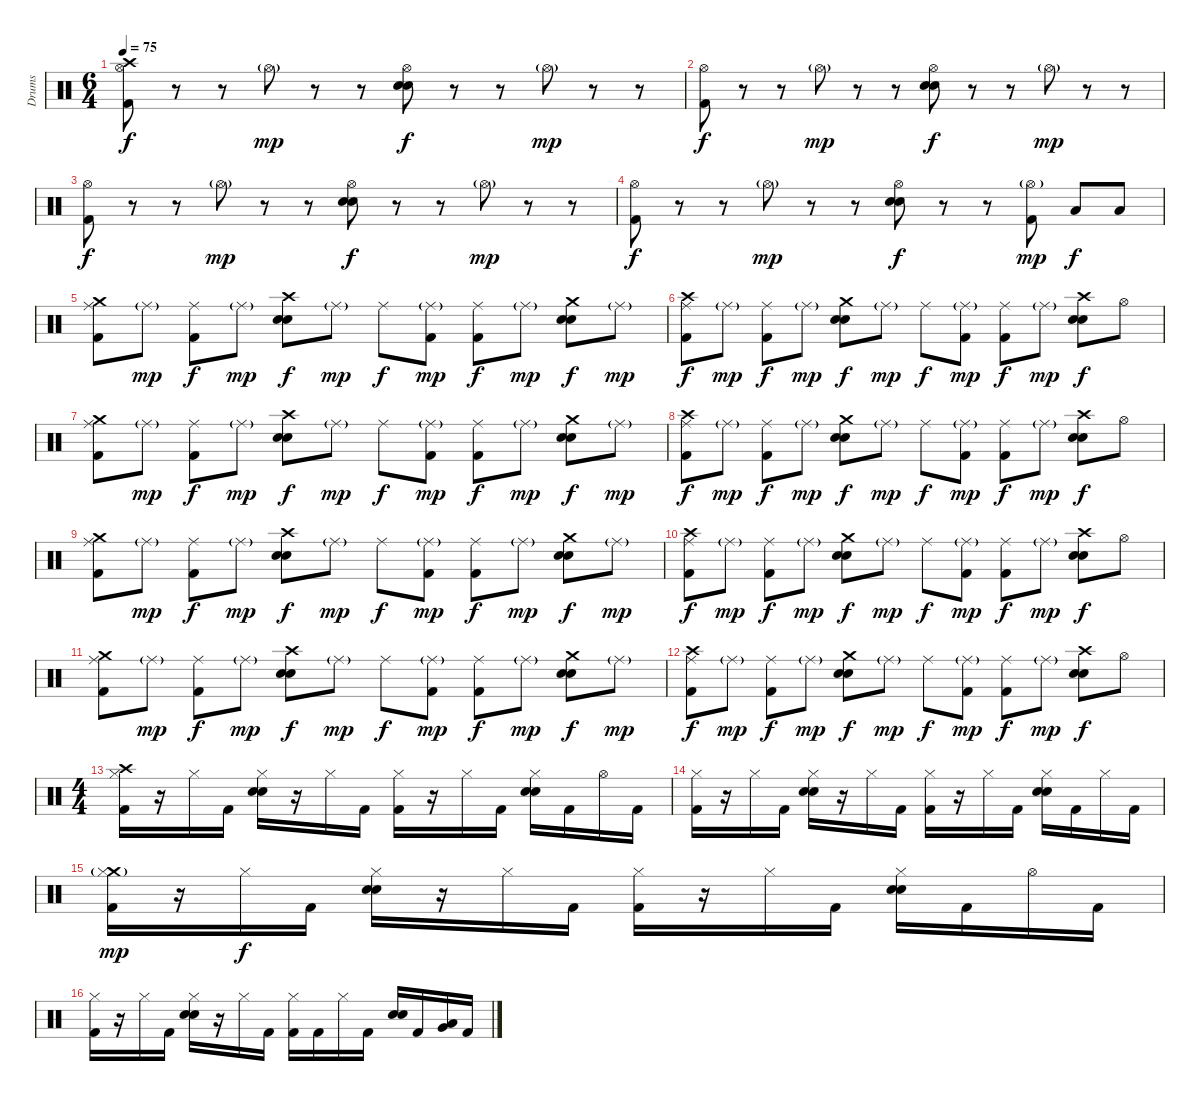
\track ("Drums" "Drums") {instrument percussion}
\staff {score}
\articulation defaults
\ts (6 4)
\tempo 75
\clef neutral
\ks c
("Hi-Hat (open)" "Crash high (hit)" "Kick (hit) 2").8{dy f} r.8 r.8 "Hi-Hat (open)"{g}.8{dy mp} r.8 r.8 ("Hi-Hat (open)" "Electric Snare (hit)" "Snare (hit) 2").8{dy f} r.8 r.8 "Hi-Hat (open)"{g}.8{dy mp} r.8 r.8 |
("Hi-Hat (open)" "Kick (hit) 2").8{dy f} r.8 r.8 "Hi-Hat (open)"{g}.8{dy mp} r.8 r.8 ("Hi-Hat (open)" "Electric Snare (hit)" "Snare (hit) 2").8{dy f} r.8 r.8 "Hi-Hat (open)"{g}.8{dy mp} r.8 r.8 |
("Hi-Hat (open)" "Kick (hit) 2").8{dy f} r.8 r.8 "Hi-Hat (open)"{g}.8{dy mp} r.8 r.8 ("Hi-Hat (open)" "Electric Snare (hit)" "Snare (hit) 2").8{dy f} r.8 r.8 "Hi-Hat (open)"{g}.8{dy mp} r.8 r.8 |
("Hi-Hat (open)" "Kick (hit) 2").8{dy f} r.8 r.8 "Hi-Hat (open)"{g}.8{dy mp} r.8 r.8 ("Hi-Hat (open)" "Electric Snare (hit)" "Snare (hit) 2").8{dy f} r.8 r.8 ("Hi-Hat (open)"{g} "Kick (hit) 2").8{dy mp} "Low Floor Tom (hit)".8{dy f} "Low Floor Tom (hit)".8 |
("Ride (middle)" "Crash medium (hit)" "Kick (hit) 2").8 "Ride (middle)"{g}.8{dy mp} ("Ride (middle)" "Kick (hit) 2").8{dy f} "Ride (middle)"{g}.8{dy mp} ("Crash high (hit)" "Electric Snare (hit)" "Snare (hit) 2").8{dy f} "Ride (middle)"{g}.8{dy mp} "Ride (middle)".8{dy f} ("Ride (middle)"{g} "Kick (hit) 2").8{dy mp} ("Ride (middle)" "Kick (hit) 2").8{dy f} "Ride (middle)"{g}.8{dy mp} ("Crash medium (hit)" "Electric Snare (hit)" "Snare (hit) 2").8{dy f} "Ride (middle)"{g}.8{dy mp} |
("Ride (middle)" "Crash high (hit)" "Kick (hit) 2").8{dy f} "Ride (middle)"{g}.8{dy mp} ("Ride (middle)" "Kick (hit) 2").8{dy f} "Ride (middle)"{g}.8{dy mp} ("Crash medium (hit)" "Electric Snare (hit)" "Snare (hit) 2").8{dy f} "Ride (middle)"{g}.8{dy mp} "Ride (middle)".8{dy f} ("Ride (middle)"{g} "Kick (hit) 2").8{dy mp} ("Ride (middle)" "Kick (hit) 2").8{dy f} "Ride (middle)"{g}.8{dy mp} ("Crash high (hit)" "Electric Snare (hit)" "Snare (hit) 2").8{dy f} "Hi-Hat (open)".8 |
("Ride (middle)" "Crash medium (hit)" "Kick (hit) 2").8 "Ride (middle)"{g}.8{dy mp} ("Ride (middle)" "Kick (hit) 2").8{dy f} "Ride (middle)"{g}.8{dy mp} ("Crash high (hit)" "Electric Snare (hit)" "Snare (hit) 2").8{dy f} "Ride (middle)"{g}.8{dy mp} "Ride (middle)".8{dy f} ("Ride (middle)"{g} "Kick (hit) 2").8{dy mp} ("Ride (middle)" "Kick (hit) 2").8{dy f} "Ride (middle)"{g}.8{dy mp} ("Crash medium (hit)" "Electric Snare (hit)" "Snare (hit) 2").8{dy f} "Ride (middle)"{g}.8{dy mp} |
("Ride (middle)" "Crash high (hit)" "Kick (hit) 2").8{dy f} "Ride (middle)"{g}.8{dy mp} ("Ride (middle)" "Kick (hit) 2").8{dy f} "Ride (middle)"{g}.8{dy mp} ("Crash medium (hit)" "Electric Snare (hit)" "Snare (hit) 2").8{dy f} "Ride (middle)"{g}.8{dy mp} "Ride (middle)".8{dy f} ("Ride (middle)"{g} "Kick (hit) 2").8{dy mp} ("Ride (middle)" "Kick (hit) 2").8{dy f} "Ride (middle)"{g}.8{dy mp} ("Crash high (hit)" "Electric Snare (hit)" "Snare (hit) 2").8{dy f} "Hi-Hat (open)".8 |
("Ride (middle)" "Crash medium (hit)" "Kick (hit) 2").8 "Ride (middle)"{g}.8{dy mp} ("Ride (middle)" "Kick (hit) 2").8{dy f} "Ride (middle)"{g}.8{dy mp} ("Crash high (hit)" "Electric Snare (hit)" "Snare (hit) 2").8{dy f} "Ride (middle)"{g}.8{dy mp} "Ride (middle)".8{dy f} ("Ride (middle)"{g} "Kick (hit) 2").8{dy mp} ("Ride (middle)" "Kick (hit) 2").8{dy f} "Ride (middle)"{g}.8{dy mp} ("Crash medium (hit)" "Electric Snare (hit)" "Snare (hit) 2").8{dy f} "Ride (middle)"{g}.8{dy mp} |
("Ride (middle)" "Crash high (hit)" "Kick (hit) 2").8{dy f} "Ride (middle)"{g}.8{dy mp} ("Ride (middle)" "Kick (hit) 2").8{dy f} "Ride (middle)"{g}.8{dy mp} ("Crash medium (hit)" "Electric Snare (hit)" "Snare (hit) 2").8{dy f} "Ride (middle)"{g}.8{dy mp} "Ride (middle)".8{dy f} ("Ride (middle)"{g} "Kick (hit) 2").8{dy mp} ("Ride (middle)" "Kick (hit) 2").8{dy f} "Ride (middle)"{g}.8{dy mp} ("Crash high (hit)" "Electric Snare (hit)" "Snare (hit) 2").8{dy f} "Hi-Hat (open)".8 |
("Ride (middle)" "Crash medium (hit)" "Kick (hit) 2").8 "Ride (middle)"{g}.8{dy mp} ("Ride (middle)" "Kick (hit) 2").8{dy f} "Ride (middle)"{g}.8{dy mp} ("Crash high (hit)" "Electric Snare (hit)" "Snare (hit) 2").8{dy f} "Ride (middle)"{g}.8{dy mp} "Ride (middle)".8{dy f} ("Ride (middle)"{g} "Kick (hit) 2").8{dy mp} ("Ride (middle)" "Kick (hit) 2").8{dy f} "Ride (middle)"{g}.8{dy mp} ("Crash medium (hit)" "Electric Snare (hit)" "Snare (hit) 2").8{dy f} "Ride (middle)"{g}.8{dy mp} |
("Ride (middle)" "Crash high (hit)" "Kick (hit) 2").8{dy f} "Ride (middle)"{g}.8{dy mp} ("Ride (middle)" "Kick (hit) 2").8{dy f} "Ride (middle)"{g}.8{dy mp} ("Crash medium (hit)" "Electric Snare (hit)" "Snare (hit) 2").8{dy f} "Ride (middle)"{g}.8{dy mp} "Ride (middle)".8{dy f} ("Ride (middle)"{g} "Kick (hit) 2").8{dy mp} ("Ride (middle)" "Kick (hit) 2").8{dy f} "Ride (middle)"{g}.8{dy mp} ("Crash high (hit)" "Electric Snare (hit)" "Snare (hit) 2").8{dy f} "Hi-Hat (open)".8 |
\ts (4 4)
("Crash high (hit)" "Hi-Hat (closed)" "Kick (hit) 2").16 r.16 "Hi-Hat (closed)".16 "Kick (hit) 2".16 ("Hi-Hat (closed)" "Electric Snare (hit)" "Snare (hit) 2").16 r.16 "Hi-Hat (closed)".16 "Kick (hit) 2".16 ("Hi-Hat (closed)" "Kick (hit) 2").16 r.16 "Hi-Hat (closed)".16 "Kick (hit) 2".16 ("Hi-Hat (closed)" "Electric Snare (hit)" "Snare (hit) 2").16 "Kick (hit) 2".16 "Hi-Hat (open)".16 "Kick (hit) 2".16 |
("Hi-Hat (closed)" "Kick (hit) 2").16 r.16 "Hi-Hat (closed)".16 "Kick (hit) 2".16 ("Hi-Hat (closed)" "Electric Snare (hit)" "Snare (hit) 2").16 r.16 "Hi-Hat (closed)".16 "Kick (hit) 2".16 ("Hi-Hat (closed)" "Kick (hit) 2").16 r.16 "Hi-Hat (closed)".16 "Kick (hit) 2".16 ("Hi-Hat (closed)" "Electric Snare (hit)" "Snare (hit) 2").16 "Kick (hit) 2".16 "Hi-Hat (closed)".16 "Kick (hit) 2".16 |
("Crash medium (hit)"{g} "Hi-Hat (closed)" "Kick (hit) 2").16{dy mp} r.16 "Hi-Hat (closed)".16{dy f} "Kick (hit) 2".16 ("Hi-Hat (closed)" "Electric Snare (hit)" "Snare (hit) 2").16 r.16 "Hi-Hat (closed)".16 "Kick (hit) 2".16 ("Hi-Hat (closed)" "Kick (hit) 2").16 r.16 "Hi-Hat (closed)".16 "Kick (hit) 2".16 ("Hi-Hat (closed)" "Electric Snare (hit)" "Snare (hit) 2").16 "Kick (hit) 2".16 "Hi-Hat (open)".16 "Kick (hit) 2".16 |
("Hi-Hat (closed)" "Kick (hit) 2").16 r.16 "Hi-Hat (closed)".16 "Kick (hit) 2".16 ("Hi-Hat (closed)" "Electric Snare (hit)" "Snare (hit) 2").16 r.16 "Hi-Hat (closed)".16 "Kick (hit) 2".16 ("Hi-Hat (closed)" "Kick (hit) 2").16 "Kick (hit) 2".16 "Hi-Hat (closed)".16 "Kick (hit) 2".16 ("Electric Snare (hit)" "Snare (hit) 2").16 "Kick (hit) 2".16 ("Very Low Tom (hit)" "Low Floor Tom (hit)").16 "Kick (hit) 2".16
